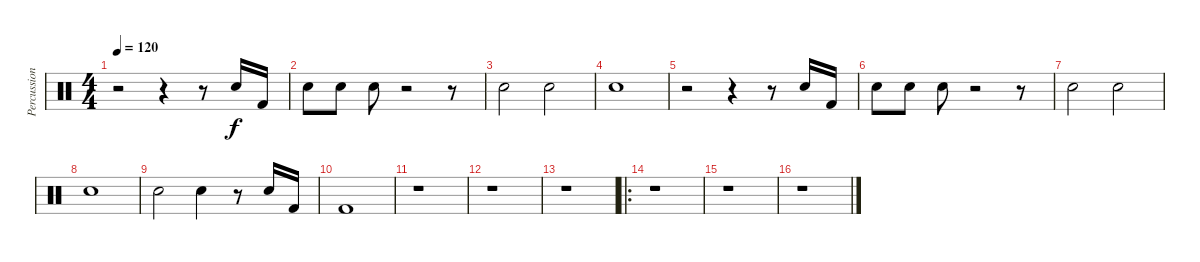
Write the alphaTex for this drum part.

\track ("Percussion" "Percussion") {instrument percussion}
\staff {score}
\articulation defaults
\ts (4 4)
\tempo 120
\clef neutral
\ks c
r.2{dy f} r.4 r.8 "Snare (hit) 2".16 "Kick (hit) 2".16 |
"Snare (hit) 2".8 "Snare (hit) 2".8 "Snare (hit) 2".8 r.2 r.8 |
"Snare (hit) 2".2 "Snare (hit) 2".2 |
"Snare (hit) 2".1 |
r.2 r.4 r.8 "Snare (hit) 2".16 "Kick (hit) 2".16 |
"Snare (hit) 2".8 "Snare (hit) 2".8 "Snare (hit) 2".8 r.2 r.8 |
"Snare (hit) 2".2 "Snare (hit) 2".2 |
"Snare (hit) 2".1 |
"Snare (hit) 2".2 "Snare (hit) 2".4 r.8 "Snare (hit) 2".16 "Kick (hit) 2".16 |
"Kick (hit) 2".1 |
r.1 |
r.1 |
r.1 |
\ro
r.1 |
r.1 |
r.1
